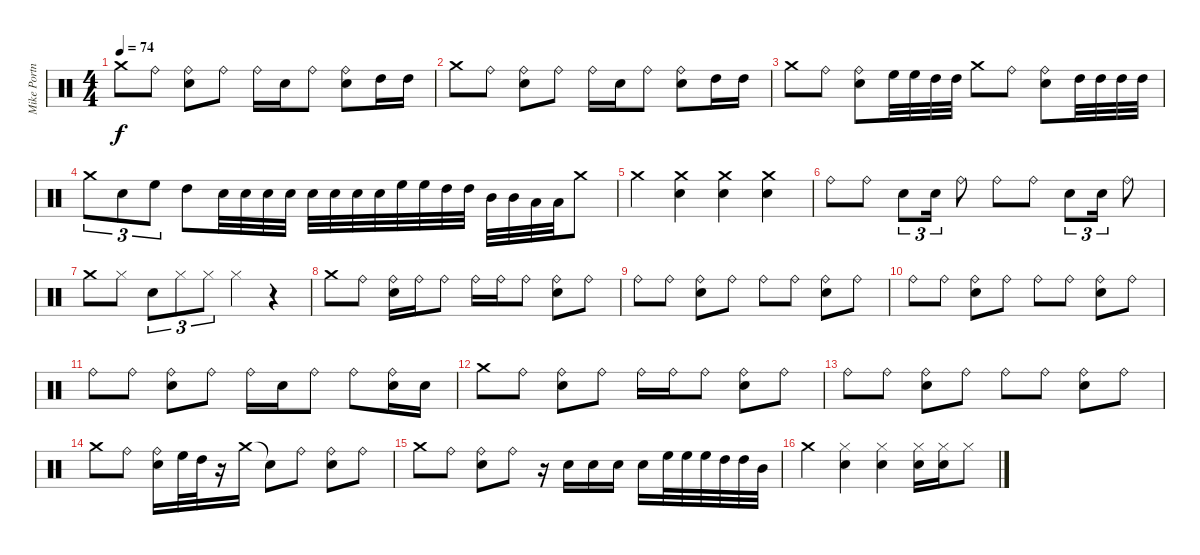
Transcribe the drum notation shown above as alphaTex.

\track ("Mike Portnoy" "Mike Portn") {instrument percussion}
\staff {score}
\articulation defaults
\ts (4 4)
\tempo 74
\clef neutral
\ks c "Crash medium (hit)".8{dy f} "Ride (bell)".8
("Ride (bell)" "Electric Snare (hit)").8 "Ride (bell)".8 "Ride (bell)".16 "Electric Snare (hit)".16 "Ride (bell)".8 ("Ride (bell)" "Electric Snare (hit)").8 "High Tom (hit)".16 "High Tom (hit)".16 |
"Crash medium (hit)".8 "Ride (bell)".8 ("Ride (bell)" "Electric Snare (hit)").8 "Ride (bell)".8 "Ride (bell)".16 "Electric Snare (hit)".16 "Ride (bell)".8 ("Ride (bell)" "Electric Snare (hit)").8 "High Tom (hit)".16 "High Tom (hit)".16 |
"Crash medium (hit)".8 "Ride (bell)".8 ("Ride (bell)" "Electric Snare (hit)").8 "High Floor Tom (hit)".32 "High Floor Tom (hit)".32 "High Tom (hit)".32 "High Tom (hit)".32 "Crash medium (hit)".8 "Ride (bell)".8 ("Ride (bell)" "Electric Snare (hit)").8 "High Tom (hit)".32 "High Tom (hit)".32 "High Tom (hit)".32 "High Tom (hit)".32 |
"Crash medium (hit)".8{tu (3 2)} "Electric Snare (hit)".8{tu (3 2)} "High Floor Tom (hit)".8{tu (3 2)} "High Tom (hit)".8 "Electric Snare (hit)".32 "Electric Snare (hit)".32 "Electric Snare (hit)".32 "Electric Snare (hit)".32 "Electric Snare (hit)".32 "Electric Snare (hit)".32 "Electric Snare (hit)".32 "Electric Snare (hit)".32 "High Floor Tom (hit)".32 "High Floor Tom (hit)".32 "High Tom (hit)".32 "High Tom (hit)".32 "Mid Tom (hit)".32 "Mid Tom (hit)".32 "Low Tom (hit)".32 "Low Tom (hit)".32 "Crash medium (hit)".8 |
"Crash medium (hit)".4 ("Crash medium (hit)" "Electric Snare (hit)").4 ("Crash medium (hit)" "Electric Snare (hit)").4 ("Crash medium (hit)" "Electric Snare (hit)").4 |
"Ride (bell)".8 "Ride (bell)".8 "Electric Snare (hit)".8{tu (3 2)} "Electric Snare (hit)".16{tu (3 2)} "Ride (bell)".8 "Ride (bell)".8 "Ride (bell)".8 "Electric Snare (hit)".8{tu (3 2)} "Electric Snare (hit)".16{tu (3 2)} "Ride (bell)".8 |
"Crash medium (hit)".8 "Hi-Hat (closed)".8 "Electric Snare (hit)".8{tu (3 2)} "Hi-Hat (closed)".8{tu (3 2)} "Hi-Hat (closed)".8{tu (3 2)} "Hi-Hat (closed)".4 r.4 |
"Crash medium (hit)".8 "Ride (bell)".8 ("Ride (bell)" "Electric Snare (hit)").16 "Ride (bell)".16 "Ride (bell)".8 "Ride (bell)".16 "Ride (bell)".16 "Ride (bell)".8 ("Ride (bell)" "Electric Snare (hit)").8 "Ride (bell)".8 |
"Ride (bell)".8 "Ride (bell)".8 ("Ride (bell)" "Electric Snare (hit)").8 "Ride (bell)".8 "Ride (bell)".8 "Ride (bell)".8 ("Ride (bell)" "Electric Snare (hit)").8 "Ride (bell)".8 |
"Ride (bell)".8 "Ride (bell)".8 ("Ride (bell)" "Electric Snare (hit)").8 "Ride (bell)".8 "Ride (bell)".8 "Ride (bell)".8 ("Ride (bell)" "Electric Snare (hit)").8 "Ride (bell)".8 |
"Ride (bell)".8 "Ride (bell)".8 ("Ride (bell)" "Electric Snare (hit)").8 "Ride (bell)".8 "Ride (bell)".16 "Electric Snare (hit)".16 "Ride (bell)".8 "Ride (bell)".8 ("Ride (bell)" "Electric Snare (hit)").16 "Electric Snare (hit)".16 |
"Crash medium (hit)".8 "Ride (bell)".8 ("Ride (bell)" "Electric Snare (hit)").8 "Ride (bell)".8 "Ride (bell)".16 "Ride (bell)".16 "Ride (bell)".8 ("Ride (bell)" "Electric Snare (hit)").8 "Ride (bell)".8 |
"Ride (bell)".8 "Ride (bell)".8 ("Ride (bell)" "Electric Snare (hit)").8 "Ride (bell)".8 "Ride (bell)".8 "Ride (bell)".8 ("Ride (bell)" "Electric Snare (hit)").8 "Ride (bell)".8 |
"Crash medium (hit)".8 "Ride (bell)".8 ("Ride (bell)" "Electric Snare (hit)").16 "High Floor Tom (hit)".32 "High Tom (hit)".32 r.16 "Crash medium (hit)".16 "Snare (hit)"{t}.8 "Ride (bell)".8 ("Ride (bell)" "Electric Snare (hit)").8 "Ride (bell)".8 |
"Crash medium (hit)".8 "Ride (bell)".8 ("Ride (bell)" "Electric Snare (hit)").8 "Ride (bell)".8 r.16 "Electric Snare (hit)".16 "Electric Snare (hit)".16 "Electric Snare (hit)".16 "Electric Snare (hit)".16 "High Floor Tom (hit)".32 "High Floor Tom (hit)".32 "High Floor Tom (hit)".32 "High Tom (hit)".32 "High Tom (hit)".32 "Mid Tom (hit)".32 |
"Crash medium (hit)".4 ("Hi-Hat (closed)" "Electric Snare (hit)").4 ("Hi-Hat (closed)" "Electric Snare (hit)").4 ("Hi-Hat (closed)" "Electric Snare (hit)").16 ("Hi-Hat (closed)" "Electric Snare (hit)").16 "Hi-Hat (closed)".8
